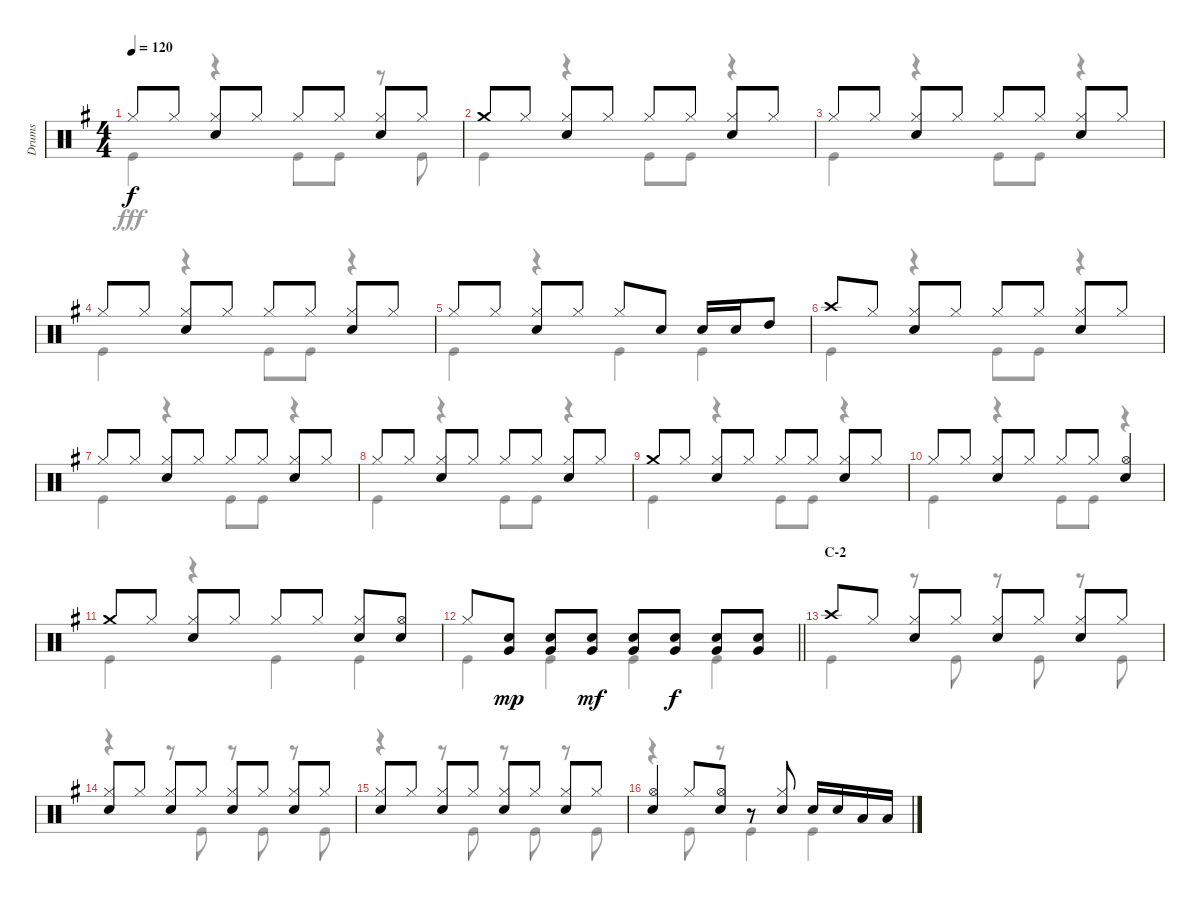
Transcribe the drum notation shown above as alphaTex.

\track ("Drums" "Drums") {instrument percussion}
\staff {score}
\articulation defaults
\voice
\ts (4 4)
\tempo 120
\clef neutral
\ks g "Hi-Hat (closed)".8{dy f} "Hi-Hat (closed)".8
("Hi-Hat (closed)" "Snare (hit) 2").8 "Hi-Hat (closed)".8 "Hi-Hat (closed)".8 "Hi-Hat (closed)".8 ("Hi-Hat (closed)" "Snare (hit) 2").8 "Hi-Hat (closed)".8 |
"Crash medium (hit)".8 "Hi-Hat (closed)".8 ("Hi-Hat (closed)" "Snare (hit) 2").8 "Hi-Hat (closed)".8 "Hi-Hat (closed)".8 "Hi-Hat (closed)".8 ("Hi-Hat (closed)" "Snare (hit) 2").8 "Hi-Hat (closed)".8 |
"Hi-Hat (closed)".8 "Hi-Hat (closed)".8 ("Hi-Hat (closed)" "Snare (hit) 2").8 "Hi-Hat (closed)".8 "Hi-Hat (closed)".8 "Hi-Hat (closed)".8 ("Hi-Hat (closed)" "Snare (hit) 2").8 "Hi-Hat (closed)".8 |
"Hi-Hat (closed)".8 "Hi-Hat (closed)".8 ("Hi-Hat (closed)" "Snare (hit) 2").8 "Hi-Hat (closed)".8 "Hi-Hat (closed)".8 "Hi-Hat (closed)".8 ("Hi-Hat (closed)" "Snare (hit) 2").8 "Hi-Hat (closed)".8 |
"Hi-Hat (closed)".8 "Hi-Hat (closed)".8 ("Hi-Hat (closed)" "Snare (hit) 2").8 "Hi-Hat (closed)".8 "Hi-Hat (closed)".8 "Snare (hit) 2".8 "Snare (hit) 2".16 "Snare (hit) 2".16 "High Tom (hit)".8 |
"Crash high (hit)".8 "Hi-Hat (closed)".8 ("Hi-Hat (closed)" "Snare (hit) 2").8 "Hi-Hat (closed)".8 "Hi-Hat (closed)".8 "Hi-Hat (closed)".8 ("Hi-Hat (closed)" "Snare (hit) 2").8 "Hi-Hat (closed)".8 |
"Hi-Hat (closed)".8 "Hi-Hat (closed)".8 ("Hi-Hat (closed)" "Snare (hit) 2").8 "Hi-Hat (closed)".8 "Hi-Hat (closed)".8 "Hi-Hat (closed)".8 ("Hi-Hat (closed)" "Snare (hit) 2").8 "Hi-Hat (closed)".8 |
"Hi-Hat (closed)".8 "Hi-Hat (closed)".8 ("Hi-Hat (closed)" "Snare (hit) 2").8 "Hi-Hat (closed)".8 "Hi-Hat (closed)".8 "Hi-Hat (closed)".8 ("Hi-Hat (closed)" "Snare (hit) 2").8 "Hi-Hat (closed)".8 |
"Crash medium (hit)".8 "Hi-Hat (closed)".8 ("Hi-Hat (closed)" "Snare (hit) 2").8 "Hi-Hat (closed)".8 "Hi-Hat (closed)".8 "Hi-Hat (closed)".8 ("Hi-Hat (closed)" "Snare (hit) 2").8 "Hi-Hat (closed)".8 |
"Hi-Hat (closed)".8 "Hi-Hat (closed)".8 ("Hi-Hat (closed)" "Snare (hit) 2").8 "Hi-Hat (closed)".8 "Hi-Hat (closed)".8 "Hi-Hat (closed)".8 ("Hi-Hat (open)" "Snare (hit) 2").4 |
"Crash medium (hit)".8 "Hi-Hat (closed)".8 ("Hi-Hat (closed)" "Snare (hit) 2").8 "Hi-Hat (closed)".8 "Hi-Hat (closed)".8 "Hi-Hat (closed)".8 ("Hi-Hat (closed)" "Snare (hit) 2").8 ("Hi-Hat (open)" "Snare (hit) 2").8 |
\barLineRight lightlight "Hi-Hat (closed)".8
("Snare (hit) 2" "Very Low Tom (hit)").8{dy mp} ("Snare (hit) 2" "Very Low Tom (hit)").8 ("Snare (hit) 2" "Very Low Tom (hit)").8{dy mf} ("Snare (hit) 2" "Very Low Tom (hit)").8 ("Snare (hit) 2" "Very Low Tom (hit)").8{dy f} ("Snare (hit) 2" "Very Low Tom (hit)").8 ("Snare (hit) 2" "Very Low Tom (hit)").8 |
\section ("" "C-2")
"Crash high (hit)".8 "Hi-Hat (closed)".8 ("Hi-Hat (closed)" "Snare (hit) 2").8 "Hi-Hat (closed)".8 ("Hi-Hat (closed)" "Snare (hit) 2").8 "Hi-Hat (closed)".8 ("Hi-Hat (closed)" "Snare (hit) 2").8 "Hi-Hat (closed)".8 |
("Hi-Hat (closed)" "Snare (hit) 2").8 "Hi-Hat (closed)".8 ("Hi-Hat (closed)" "Snare (hit) 2").8 "Hi-Hat (closed)".8 ("Hi-Hat (closed)" "Snare (hit) 2").8 "Hi-Hat (closed)".8 ("Hi-Hat (closed)" "Snare (hit) 2").8 "Hi-Hat (closed)".8 |
("Hi-Hat (closed)" "Snare (hit) 2").8 "Hi-Hat (closed)".8 ("Hi-Hat (closed)" "Snare (hit) 2").8 "Hi-Hat (closed)".8 ("Hi-Hat (closed)" "Snare (hit) 2").8 "Hi-Hat (closed)".8 ("Hi-Hat (closed)" "Snare (hit) 2").8 "Hi-Hat (closed)".8 |
("Hi-Hat (open)" "Snare (hit) 2").4 "Hi-Hat (closed)".8 ("Hi-Hat (open)" "Snare (hit) 2").8 r.8 ("Hi-Hat (closed)" "Snare (hit) 2").8 "Snare (hit) 2".16 "Snare (hit) 2".16 "Low Tom (hit)".16 "Low Tom (hit)".16
\voice
\clef neutral
\ottava regular
\simile none
\ks g "Kick (hit)".4{dy fff}
r.4 "Kick (hit)".8 "Kick (hit)".8 r.8 "Kick (hit)".8 |
"Kick (hit)".4 r.4 "Kick (hit)".8 "Kick (hit)".8 r.4 |
"Kick (hit)".4 r.4 "Kick (hit)".8 "Kick (hit)".8 r.4 |
"Kick (hit)".4 r.4 "Kick (hit)".8 "Kick (hit)".8 r.4 |
"Kick (hit)".4 r.4 "Kick (hit)".4 "Kick (hit)".4 |
"Kick (hit)".4 r.4 "Kick (hit)".8 "Kick (hit)".8 r.4 |
"Kick (hit)".4 r.4 "Kick (hit)".8 "Kick (hit)".8 r.4 |
"Kick (hit)".4 r.4 "Kick (hit)".8 "Kick (hit)".8 r.4 |
"Kick (hit)".4 r.4 "Kick (hit)".8 "Kick (hit)".8 r.4 |
"Kick (hit)".4 r.4 "Kick (hit)".8 "Kick (hit)".8 r.4 |
"Kick (hit)".4 r.4 "Kick (hit)".4 "Kick (hit)".4 |
\barLineRight lightlight "Kick (hit)".4 "Kick (hit)".4 "Kick (hit)".4 "Kick (hit)".4
|
"Kick (hit)".4 r.8 "Kick (hit)".8 r.8 "Kick (hit)".8 r.8 "Kick (hit)".8 |
r.4 r.8 "Kick (hit)".8 r.8 "Kick (hit)".8 r.8 "Kick (hit)".8 |
r.4 r.8 "Kick (hit)".8 r.8 "Kick (hit)".8 r.8 "Kick (hit)".8 |
r.4 "Kick (hit)".8 r.8 "Kick (hit)".4 "Kick (hit)".4
